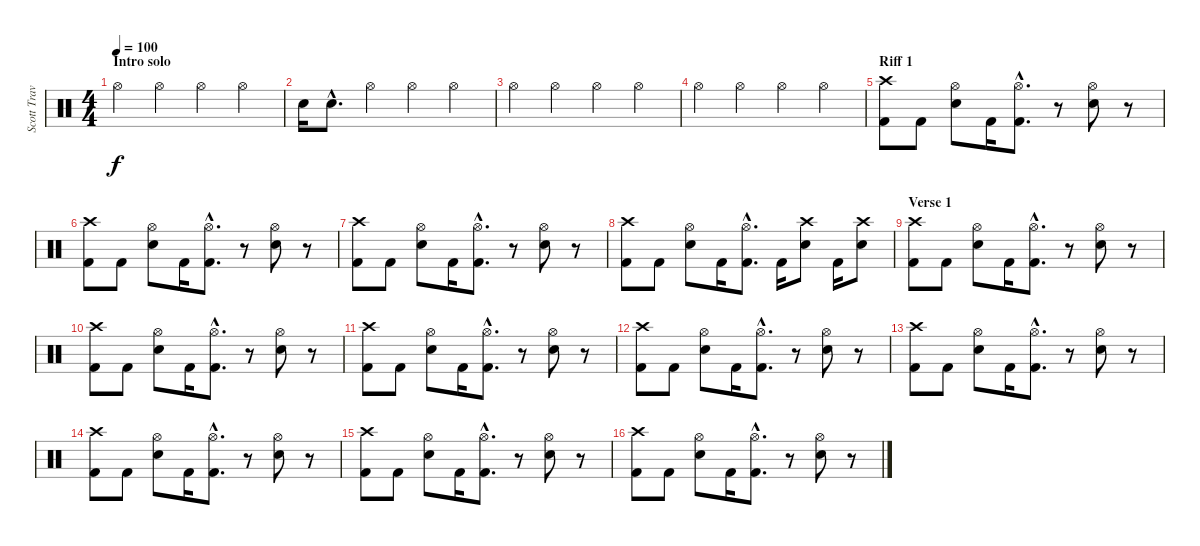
\track ("Scott Travis" "Scott Trav") {instrument percussion}
\staff {score}
\articulation defaults
\ts (4 4)
\section ("" "Intro solo")
\tempo 100
\clef neutral
\ks c "Hi-Hat (open)".4{dy f} "Hi-Hat (open)".4 "Hi-Hat (open)".4 "Hi-Hat (open)".4
|
"Electric Snare (hit)".16 "Electric Snare (hit)"{hac}.8{d} "Hi-Hat (open)".4 "Hi-Hat (open)".4 "Hi-Hat (open)".4 |
"Hi-Hat (open)".4 "Hi-Hat (open)".4 "Hi-Hat (open)".4 "Hi-Hat (open)".4 |
"Hi-Hat (open)".4 "Hi-Hat (open)".4 "Hi-Hat (open)".4 "Hi-Hat (open)".4 |
\section ("" "Riff 1")
("Crash high (hit)" "Kick (hit) 2").8 "Kick (hit) 2".8 ("Hi-Hat (open)" "Electric Snare (hit)").8 "Kick (hit) 2".16 ("Hi-Hat (open)"{hac} "Kick (hit) 2"{hac}).8{d} r.8 ("Hi-Hat (open)" "Electric Snare (hit)").8 r.8 |
("Crash high (hit)" "Kick (hit) 2").8 "Kick (hit) 2".8 ("Hi-Hat (open)" "Electric Snare (hit)").8 "Kick (hit) 2".16 ("Hi-Hat (open)"{hac} "Kick (hit) 2"{hac}).8{d} r.8 ("Hi-Hat (open)" "Electric Snare (hit)").8 r.8 |
("Crash high (hit)" "Kick (hit) 2").8 "Kick (hit) 2".8 ("Hi-Hat (open)" "Electric Snare (hit)").8 "Kick (hit) 2".16 ("Hi-Hat (open)"{hac} "Kick (hit) 2"{hac}).8{d} r.8 ("Hi-Hat (open)" "Electric Snare (hit)").8 r.8 |
("Crash high (hit)" "Kick (hit) 2").8 "Kick (hit) 2".8 ("Hi-Hat (open)" "Electric Snare (hit)").8 "Kick (hit) 2".16 ("Hi-Hat (open)"{hac} "Kick (hit) 2"{hac}).8{d} "Kick (hit) 2".16 ("Crash high (hit)" "Electric Snare (hit)").8 "Kick (hit) 2".16 ("Crash high (hit)" "Electric Snare (hit)").8 |
\section ("" "Verse 1")
("Crash high (hit)" "Kick (hit) 2").8 "Kick (hit) 2".8 ("Hi-Hat (open)" "Electric Snare (hit)").8 "Kick (hit) 2".16 ("Hi-Hat (open)"{hac} "Kick (hit) 2"{hac}).8{d} r.8 ("Hi-Hat (open)" "Electric Snare (hit)").8 r.8 |
("Crash high (hit)" "Kick (hit) 2").8 "Kick (hit) 2".8 ("Hi-Hat (open)" "Electric Snare (hit)").8 "Kick (hit) 2".16 ("Hi-Hat (open)"{hac} "Kick (hit) 2"{hac}).8{d} r.8 ("Hi-Hat (open)" "Electric Snare (hit)").8 r.8 |
("Crash high (hit)" "Kick (hit) 2").8 "Kick (hit) 2".8 ("Hi-Hat (open)" "Electric Snare (hit)").8 "Kick (hit) 2".16 ("Hi-Hat (open)"{hac} "Kick (hit) 2"{hac}).8{d} r.8 ("Hi-Hat (open)" "Electric Snare (hit)").8 r.8 |
("Crash high (hit)" "Kick (hit) 2").8 "Kick (hit) 2".8 ("Hi-Hat (open)" "Electric Snare (hit)").8 "Kick (hit) 2".16 ("Hi-Hat (open)"{hac} "Kick (hit) 2"{hac}).8{d} r.8 ("Hi-Hat (open)" "Electric Snare (hit)").8 r.8 |
("Crash high (hit)" "Kick (hit) 2").8 "Kick (hit) 2".8 ("Hi-Hat (open)" "Electric Snare (hit)").8 "Kick (hit) 2".16 ("Hi-Hat (open)"{hac} "Kick (hit) 2"{hac}).8{d} r.8 ("Hi-Hat (open)" "Electric Snare (hit)").8 r.8 |
("Crash high (hit)" "Kick (hit) 2").8 "Kick (hit) 2".8 ("Hi-Hat (open)" "Electric Snare (hit)").8 "Kick (hit) 2".16 ("Hi-Hat (open)"{hac} "Kick (hit) 2"{hac}).8{d} r.8 ("Hi-Hat (open)" "Electric Snare (hit)").8 r.8 |
("Crash high (hit)" "Kick (hit) 2").8 "Kick (hit) 2".8 ("Hi-Hat (open)" "Electric Snare (hit)").8 "Kick (hit) 2".16 ("Hi-Hat (open)"{hac} "Kick (hit) 2"{hac}).8{d} r.8 ("Hi-Hat (open)" "Electric Snare (hit)").8 r.8 |
("Crash high (hit)" "Kick (hit) 2").8 "Kick (hit) 2".8 ("Hi-Hat (open)" "Electric Snare (hit)").8 "Kick (hit) 2".16 ("Hi-Hat (open)"{hac} "Kick (hit) 2"{hac}).8{d} r.8 ("Hi-Hat (open)" "Electric Snare (hit)").8 r.8
